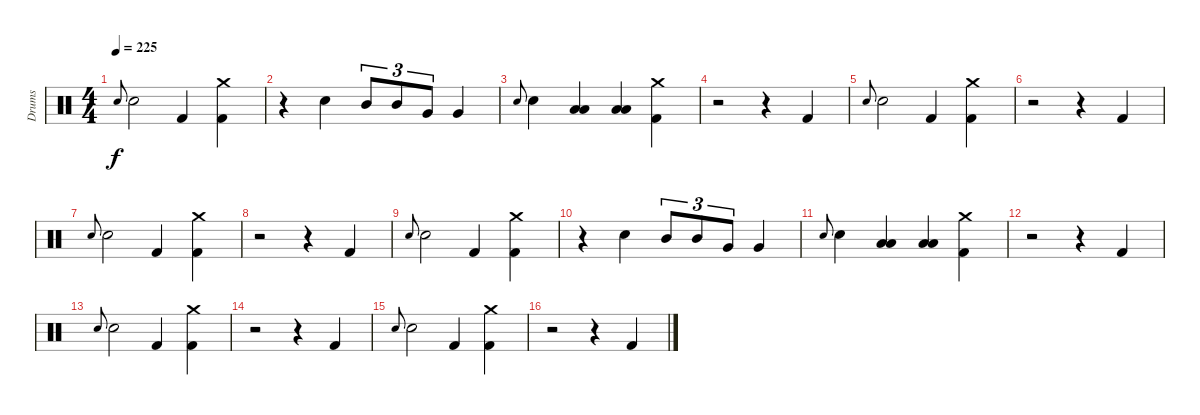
\track ("Drums" "Drums") {instrument percussion}
\staff {score}
\articulation defaults
\ts (4 4)
\tempo 225
\clef neutral
\ks c "Electric Snare (hit)".8{gr onbeat dy f} "Electric Snare (hit)".2 "Kick (hit) 2".4
("Crash medium (hit)" "Kick (hit) 2").4 |
r.4 "Electric Snare (hit)".4 "Mid Tom (hit)".8{tu (3 2)} "Mid Tom (hit)".8{tu (3 2)} "Very Low Tom (hit)".8{tu (3 2)} "Very Low Tom (hit)".4 |
"Electric Snare (hit)".8{gr onbeat} "Electric Snare (hit)".4 ("Low Tom (hit)" "Low Floor Tom (hit)").4 ("Low Floor Tom (hit)" "Low Tom (hit)").4 ("Kick (hit) 2" "Crash medium (hit)").4 |
r.2 r.4 "Kick (hit) 2".4 |
"Electric Snare (hit)".8{gr onbeat} "Electric Snare (hit)".2 "Kick (hit) 2".4 ("Crash medium (hit)" "Kick (hit) 2").4 |
r.2 r.4 "Kick (hit) 2".4 |
"Electric Snare (hit)".8{gr onbeat} "Electric Snare (hit)".2 "Kick (hit) 2".4 ("Crash medium (hit)" "Kick (hit) 2").4 |
r.2 r.4 "Kick (hit) 2".4 |
"Electric Snare (hit)".8{gr onbeat} "Electric Snare (hit)".2 "Kick (hit) 2".4 ("Crash medium (hit)" "Kick (hit) 2").4 |
r.4 "Electric Snare (hit)".4 "Mid Tom (hit)".8{tu (3 2)} "Mid Tom (hit)".8{tu (3 2)} "Very Low Tom (hit)".8{tu (3 2)} "Very Low Tom (hit)".4 |
"Electric Snare (hit)".8{gr onbeat} "Electric Snare (hit)".4 ("Low Tom (hit)" "Low Floor Tom (hit)").4 ("Low Floor Tom (hit)" "Low Tom (hit)").4 ("Kick (hit) 2" "Crash medium (hit)").4 |
r.2 r.4 "Kick (hit) 2".4 |
"Electric Snare (hit)".8{gr onbeat} "Electric Snare (hit)".2 "Kick (hit) 2".4 ("Crash medium (hit)" "Kick (hit) 2").4 |
r.2 r.4 "Kick (hit) 2".4 |
"Electric Snare (hit)".8{gr onbeat} "Electric Snare (hit)".2 "Kick (hit) 2".4 ("Crash medium (hit)" "Kick (hit) 2").4 |
r.2 r.4 "Kick (hit) 2".4
